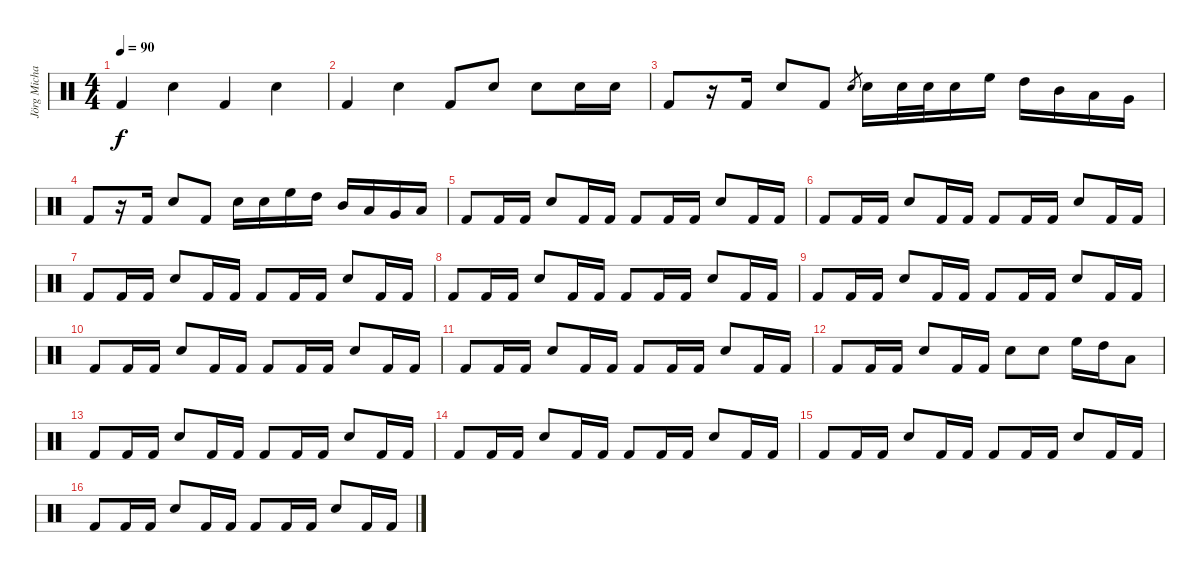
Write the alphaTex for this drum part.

\track ("Jörg Michael Drums" "Jörg Micha") {instrument percussion}
\staff {score}
\articulation defaults
\ts (4 4)
\tempo 90
\clef neutral
\ks c "Kick (hit) 2".4{dy f} "Electric Snare (hit)".4 "Kick (hit) 2".4 "Electric Snare (hit)".4
|
"Kick (hit) 2".4 "Electric Snare (hit)".4 "Kick (hit) 2".8 "Electric Snare (hit)".8 "Electric Snare (hit)".8 "Electric Snare (hit)".16 "Electric Snare (hit)".16 |
"Kick (hit) 2".8 r.16 "Kick (hit) 2".16 "Electric Snare (hit)".8 "Kick (hit) 2".8 "Electric Snare (hit)".8{gr} "Electric Snare (hit)".16 "Electric Snare (hit)".32 "Electric Snare (hit)".32 "Electric Snare (hit)".16 "High Floor Tom (hit)".16 "High Tom (hit)".16 "Mid Tom (hit)".16 "Low Tom (hit)".16 "Very Low Tom (hit)".16 |
"Kick (hit) 2".8 r.16 "Kick (hit) 2".16 "Electric Snare (hit)".8 "Kick (hit) 2".8 "Electric Snare (hit)".16 "Electric Snare (hit)".16 "High Floor Tom (hit)".16 "High Tom (hit)".16 "Mid Tom (hit)".16 "Low Tom (hit)".16 "Very Low Tom (hit)".16 "Low Floor Tom (hit)".16 |
"Kick (hit) 2".8 "Kick (hit) 2".16 "Kick (hit) 2".16 "Electric Snare (hit)".8 "Kick (hit) 2".16 "Kick (hit) 2".16 "Kick (hit) 2".8 "Kick (hit) 2".16 "Kick (hit) 2".16 "Electric Snare (hit)".8 "Kick (hit) 2".16 "Kick (hit) 2".16 |
"Kick (hit) 2".8 "Kick (hit) 2".16 "Kick (hit) 2".16 "Electric Snare (hit)".8 "Kick (hit) 2".16 "Kick (hit) 2".16 "Kick (hit) 2".8 "Kick (hit) 2".16 "Kick (hit) 2".16 "Electric Snare (hit)".8 "Kick (hit) 2".16 "Kick (hit) 2".16 |
"Kick (hit) 2".8 "Kick (hit) 2".16 "Kick (hit) 2".16 "Electric Snare (hit)".8 "Kick (hit) 2".16 "Kick (hit) 2".16 "Kick (hit) 2".8 "Kick (hit) 2".16 "Kick (hit) 2".16 "Electric Snare (hit)".8 "Kick (hit) 2".16 "Kick (hit) 2".16 |
"Kick (hit) 2".8 "Kick (hit) 2".16 "Kick (hit) 2".16 "Electric Snare (hit)".8 "Kick (hit) 2".16 "Kick (hit) 2".16 "Kick (hit) 2".8 "Kick (hit) 2".16 "Kick (hit) 2".16 "Electric Snare (hit)".8 "Kick (hit) 2".16 "Kick (hit) 2".16 |
"Kick (hit) 2".8 "Kick (hit) 2".16 "Kick (hit) 2".16 "Electric Snare (hit)".8 "Kick (hit) 2".16 "Kick (hit) 2".16 "Kick (hit) 2".8 "Kick (hit) 2".16 "Kick (hit) 2".16 "Electric Snare (hit)".8 "Kick (hit) 2".16 "Kick (hit) 2".16 |
"Kick (hit) 2".8 "Kick (hit) 2".16 "Kick (hit) 2".16 "Electric Snare (hit)".8 "Kick (hit) 2".16 "Kick (hit) 2".16 "Kick (hit) 2".8 "Kick (hit) 2".16 "Kick (hit) 2".16 "Electric Snare (hit)".8 "Kick (hit) 2".16 "Kick (hit) 2".16 |
"Kick (hit) 2".8 "Kick (hit) 2".16 "Kick (hit) 2".16 "Electric Snare (hit)".8 "Kick (hit) 2".16 "Kick (hit) 2".16 "Kick (hit) 2".8 "Kick (hit) 2".16 "Kick (hit) 2".16 "Electric Snare (hit)".8 "Kick (hit) 2".16 "Kick (hit) 2".16 |
"Kick (hit) 2".8 "Kick (hit) 2".16 "Kick (hit) 2".16 "Electric Snare (hit)".8 "Kick (hit) 2".16 "Kick (hit) 2".16 "Electric Snare (hit)".8 "Electric Snare (hit)".8 "High Floor Tom (hit)".16 "High Tom (hit)".16 "Low Tom (hit)".8 |
"Kick (hit) 2".8 "Kick (hit) 2".16 "Kick (hit) 2".16 "Electric Snare (hit)".8 "Kick (hit) 2".16 "Kick (hit) 2".16 "Kick (hit) 2".8 "Kick (hit) 2".16 "Kick (hit) 2".16 "Electric Snare (hit)".8 "Kick (hit) 2".16 "Kick (hit) 2".16 |
"Kick (hit) 2".8 "Kick (hit) 2".16 "Kick (hit) 2".16 "Electric Snare (hit)".8 "Kick (hit) 2".16 "Kick (hit) 2".16 "Kick (hit) 2".8 "Kick (hit) 2".16 "Kick (hit) 2".16 "Electric Snare (hit)".8 "Kick (hit) 2".16 "Kick (hit) 2".16 |
"Kick (hit) 2".8 "Kick (hit) 2".16 "Kick (hit) 2".16 "Electric Snare (hit)".8 "Kick (hit) 2".16 "Kick (hit) 2".16 "Kick (hit) 2".8 "Kick (hit) 2".16 "Kick (hit) 2".16 "Electric Snare (hit)".8 "Kick (hit) 2".16 "Kick (hit) 2".16 |
"Kick (hit) 2".8 "Kick (hit) 2".16 "Kick (hit) 2".16 "Electric Snare (hit)".8 "Kick (hit) 2".16 "Kick (hit) 2".16 "Kick (hit) 2".8 "Kick (hit) 2".16 "Kick (hit) 2".16 "Electric Snare (hit)".8 "Kick (hit) 2".16 "Kick (hit) 2".16
